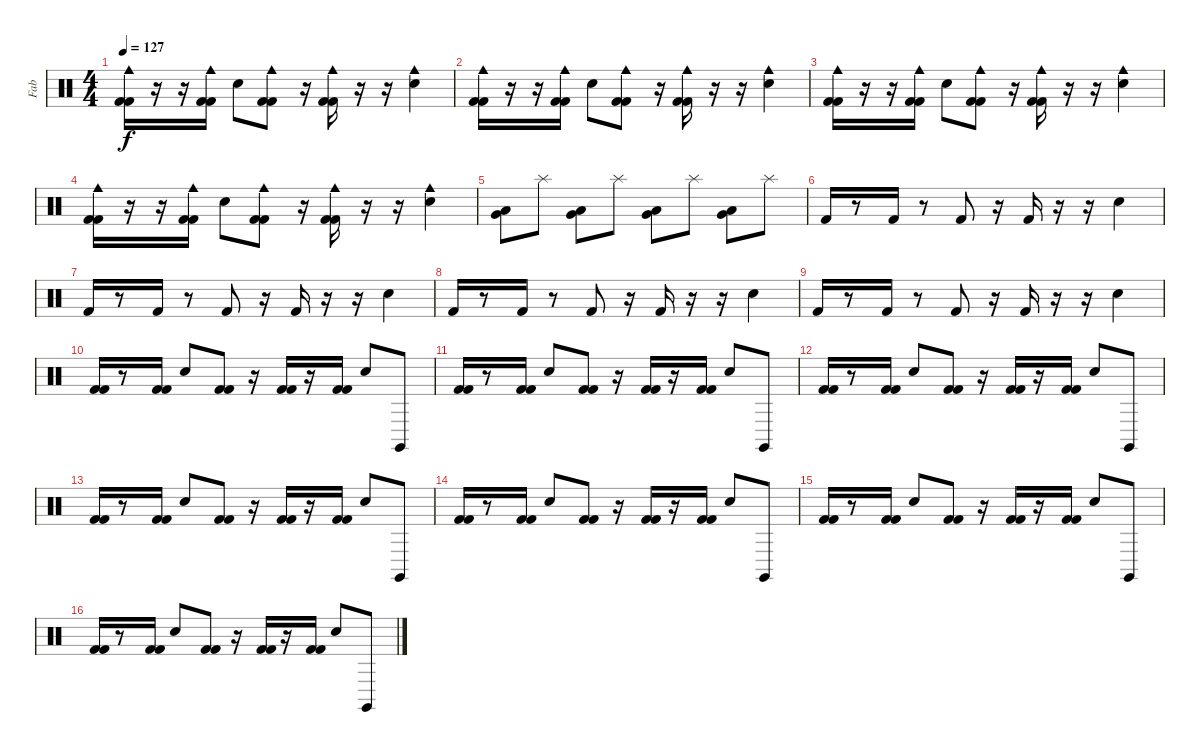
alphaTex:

\track ("Fab" "Fab") {instrument percussion}
\staff {score}
\articulation defaults
\ts (4 4)
\tempo 127
\clef neutral
\ks c
("Kick (hit) 2" "Kick (hit) 2" "Cowbell medium (hit)").16{dy f} r.16 r.16 ("Kick (hit) 2" "Kick (hit) 2" "Cowbell medium (hit)").16 "Electric Snare (hit)".8 ("Kick (hit) 2" "Kick (hit) 2" "Cowbell medium (hit)").8 r.16 ("Kick (hit) 2" "Kick (hit) 2" "Cowbell medium (hit)").16 r.16 r.16 ("Electric Snare (hit)" "Cowbell medium (hit)").4 |
("Kick (hit) 2" "Kick (hit) 2" "Cowbell medium (hit)").16 r.16 r.16 ("Kick (hit) 2" "Kick (hit) 2" "Cowbell medium (hit)").16 "Electric Snare (hit)".8 ("Kick (hit) 2" "Kick (hit) 2" "Cowbell medium (hit)").8 r.16 ("Kick (hit) 2" "Kick (hit) 2" "Cowbell medium (hit)").16 r.16 r.16 ("Electric Snare (hit)" "Cowbell medium (hit)").4 |
("Kick (hit) 2" "Kick (hit) 2" "Cowbell medium (hit)").16 r.16 r.16 ("Kick (hit) 2" "Kick (hit) 2" "Cowbell medium (hit)").16 "Electric Snare (hit)".8 ("Kick (hit) 2" "Kick (hit) 2" "Cowbell medium (hit)").8 r.16 ("Kick (hit) 2" "Kick (hit) 2" "Cowbell medium (hit)").16 r.16 r.16 ("Electric Snare (hit)" "Cowbell medium (hit)").4 |
("Kick (hit) 2" "Kick (hit) 2" "Cowbell medium (hit)").16 r.16 r.16 ("Kick (hit) 2" "Kick (hit) 2" "Cowbell medium (hit)").16 "Electric Snare (hit)".8 ("Kick (hit) 2" "Kick (hit) 2" "Cowbell medium (hit)").8 r.16 ("Kick (hit) 2" "Kick (hit) 2" "Cowbell medium (hit)").16 r.16 r.16 ("Electric Snare (hit)" "Cowbell medium (hit)").4 |
("Low Floor Tom (hit)" "Very Low Tom (hit)").8 "Splash (hit)".8 ("Low Floor Tom (hit)" "Very Low Tom (hit)").8 "Splash (hit)".8 ("Low Floor Tom (hit)" "Very Low Tom (hit)").8 "Splash (hit)".8 ("Low Floor Tom (hit)" "Very Low Tom (hit)").8 "Splash (hit)".8 |
"Kick (hit) 2".16 r.8 "Kick (hit) 2".16 r.8 "Kick (hit) 2".8 r.16 "Kick (hit) 2".16 r.16 r.16 "Electric Snare (hit)".4 |
"Kick (hit) 2".16 r.8 "Kick (hit) 2".16 r.8 "Kick (hit) 2".8 r.16 "Kick (hit) 2".16 r.16 r.16 "Electric Snare (hit)".4 |
"Kick (hit) 2".16 r.8 "Kick (hit) 2".16 r.8 "Kick (hit) 2".8 r.16 "Kick (hit) 2".16 r.16 r.16 "Electric Snare (hit)".4 |
"Kick (hit) 2".16 r.8 "Kick (hit) 2".16 r.8 "Kick (hit) 2".8 r.16 "Kick (hit) 2".16 r.16 r.16 "Electric Snare (hit)".4 |
("Kick (hit) 2" "Kick (hit) 2").16 r.8 ("Kick (hit) 2" "Kick (hit) 2").16 "Electric Snare (hit)".8 ("Kick (hit) 2" "Kick (hit) 2").8 r.16 ("Kick (hit) 2" "Kick (hit) 2").16 r.16 ("Kick (hit) 2" "Kick (hit) 2").16 "Electric Snare (hit)".8 "Claves (hit)".8 |
("Kick (hit) 2" "Kick (hit) 2").16 r.8 ("Kick (hit) 2" "Kick (hit) 2").16 "Electric Snare (hit)".8 ("Kick (hit) 2" "Kick (hit) 2").8 r.16 ("Kick (hit) 2" "Kick (hit) 2").16 r.16 ("Kick (hit) 2" "Kick (hit) 2").16 "Electric Snare (hit)".8 "Claves (hit)".8 |
("Kick (hit) 2" "Kick (hit) 2").16 r.8 ("Kick (hit) 2" "Kick (hit) 2").16 "Electric Snare (hit)".8 ("Kick (hit) 2" "Kick (hit) 2").8 r.16 ("Kick (hit) 2" "Kick (hit) 2").16 r.16 ("Kick (hit) 2" "Kick (hit) 2").16 "Electric Snare (hit)".8 "Claves (hit)".8 |
("Kick (hit) 2" "Kick (hit) 2").16 r.8 ("Kick (hit) 2" "Kick (hit) 2").16 "Electric Snare (hit)".8 ("Kick (hit) 2" "Kick (hit) 2").8 r.16 ("Kick (hit) 2" "Kick (hit) 2").16 r.16 ("Kick (hit) 2" "Kick (hit) 2").16 "Electric Snare (hit)".8 "Claves (hit)".8 |
("Kick (hit) 2" "Kick (hit) 2").16 r.8 ("Kick (hit) 2" "Kick (hit) 2").16 "Electric Snare (hit)".8 ("Kick (hit) 2" "Kick (hit) 2").8 r.16 ("Kick (hit) 2" "Kick (hit) 2").16 r.16 ("Kick (hit) 2" "Kick (hit) 2").16 "Electric Snare (hit)".8 "Claves (hit)".8 |
("Kick (hit) 2" "Kick (hit) 2").16 r.8 ("Kick (hit) 2" "Kick (hit) 2").16 "Electric Snare (hit)".8 ("Kick (hit) 2" "Kick (hit) 2").8 r.16 ("Kick (hit) 2" "Kick (hit) 2").16 r.16 ("Kick (hit) 2" "Kick (hit) 2").16 "Electric Snare (hit)".8 "Claves (hit)".8 |
("Kick (hit) 2" "Kick (hit) 2").16 r.8 ("Kick (hit) 2" "Kick (hit) 2").16 "Electric Snare (hit)".8 ("Kick (hit) 2" "Kick (hit) 2").8 r.16 ("Kick (hit) 2" "Kick (hit) 2").16 r.16 ("Kick (hit) 2" "Kick (hit) 2").16 "Electric Snare (hit)".8 "Claves (hit)".8
